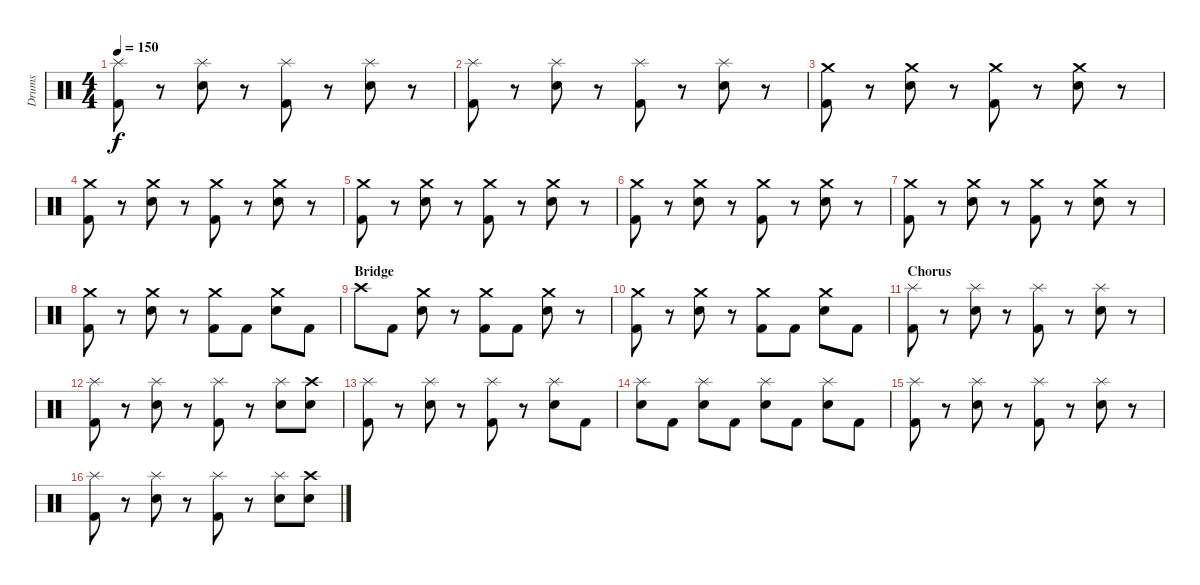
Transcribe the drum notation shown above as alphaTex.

\track ("Drums" "Drums") {instrument percussion}
\staff {score}
\articulation defaults
\ts (4 4)
\tempo 150
\clef neutral
\ks c
("Splash (hit)" "Kick (hit) 2").8{dy f} r.8 ("Splash (hit)" "Electric Snare (hit)").8 r.8 ("Splash (hit)" "Kick (hit) 2").8 r.8 ("Splash (hit)" "Electric Snare (hit)").8 r.8 |
("Splash (hit)" "Kick (hit) 2").8 r.8 ("Splash (hit)" "Electric Snare (hit)").8 r.8 ("Splash (hit)" "Kick (hit) 2").8 r.8 ("Splash (hit)" "Electric Snare (hit)").8 r.8 |
("Crash medium (hit)" "Kick (hit) 2").8 r.8 ("Crash medium (hit)" "Electric Snare (hit)").8 r.8 ("Crash medium (hit)" "Kick (hit) 2").8 r.8 ("Crash medium (hit)" "Electric Snare (hit)").8 r.8 |
("Crash medium (hit)" "Kick (hit) 2").8 r.8 ("Crash medium (hit)" "Electric Snare (hit)").8 r.8 ("Crash medium (hit)" "Kick (hit) 2").8 r.8 ("Crash medium (hit)" "Electric Snare (hit)").8 r.8 |
("Crash medium (hit)" "Kick (hit) 2").8 r.8 ("Crash medium (hit)" "Electric Snare (hit)").8 r.8 ("Crash medium (hit)" "Kick (hit) 2").8 r.8 ("Crash medium (hit)" "Electric Snare (hit)").8 r.8 |
("Crash medium (hit)" "Kick (hit) 2").8 r.8 ("Crash medium (hit)" "Electric Snare (hit)").8 r.8 ("Crash medium (hit)" "Kick (hit) 2").8 r.8 ("Crash medium (hit)" "Electric Snare (hit)").8 r.8 |
("Crash medium (hit)" "Kick (hit) 2").8 r.8 ("Crash medium (hit)" "Electric Snare (hit)").8 r.8 ("Crash medium (hit)" "Kick (hit) 2").8 r.8 ("Crash medium (hit)" "Electric Snare (hit)").8 r.8 |
("Crash medium (hit)" "Kick (hit) 2").8 r.8 ("Crash medium (hit)" "Electric Snare (hit)").8 r.8 ("Crash medium (hit)" "Kick (hit) 2").8 "Kick (hit) 2".8 ("Crash medium (hit)" "Electric Snare (hit)").8 "Kick (hit) 2".8 |
\section ("" "Bridge")
"Crash high (hit)".8 "Kick (hit) 2".8 ("Crash medium (hit)" "Electric Snare (hit)").8 r.8 ("Crash medium (hit)" "Kick (hit) 2").8 "Kick (hit) 2".8 ("Crash medium (hit)" "Electric Snare (hit)").8 r.8 |
("Crash medium (hit)" "Kick (hit) 2").8 r.8 ("Crash medium (hit)" "Electric Snare (hit)").8 r.8 ("Crash medium (hit)" "Kick (hit) 2").8 "Kick (hit) 2".8 ("Crash medium (hit)" "Electric Snare (hit)").8 "Kick (hit) 2".8 |
\section ("" "Chorus")
("Splash (hit)" "Kick (hit) 2").8 r.8 ("Splash (hit)" "Electric Snare (hit)").8 r.8 ("Splash (hit)" "Kick (hit) 2").8 r.8 ("Splash (hit)" "Electric Snare (hit)").8 r.8 |
("Splash (hit)" "Kick (hit) 2").8 r.8 ("Splash (hit)" "Electric Snare (hit)").8 r.8 ("Splash (hit)" "Kick (hit) 2").8 r.8 ("Splash (hit)" "Electric Snare (hit)").8 ("Crash high (hit)" "Electric Snare (hit)").8 |
("Splash (hit)" "Kick (hit) 2").8 r.8 ("Splash (hit)" "Electric Snare (hit)").8 r.8 ("Splash (hit)" "Kick (hit) 2").8 r.8 ("Splash (hit)" "Electric Snare (hit)").8 "Kick (hit) 2".8 |
("Splash (hit)" "Electric Snare (hit)").8 "Kick (hit) 2".8 ("Splash (hit)" "Electric Snare (hit)").8 "Kick (hit) 2".8 ("Splash (hit)" "Electric Snare (hit)").8 "Kick (hit) 2".8 ("Splash (hit)" "Electric Snare (hit)").8 "Kick (hit) 2".8 |
("Splash (hit)" "Kick (hit) 2").8 r.8 ("Splash (hit)" "Electric Snare (hit)").8 r.8 ("Splash (hit)" "Kick (hit) 2").8 r.8 ("Splash (hit)" "Electric Snare (hit)").8 r.8 |
("Splash (hit)" "Kick (hit) 2").8 r.8 ("Splash (hit)" "Electric Snare (hit)").8 r.8 ("Splash (hit)" "Kick (hit) 2").8 r.8 ("Splash (hit)" "Electric Snare (hit)").8 ("Crash high (hit)" "Electric Snare (hit)").8
